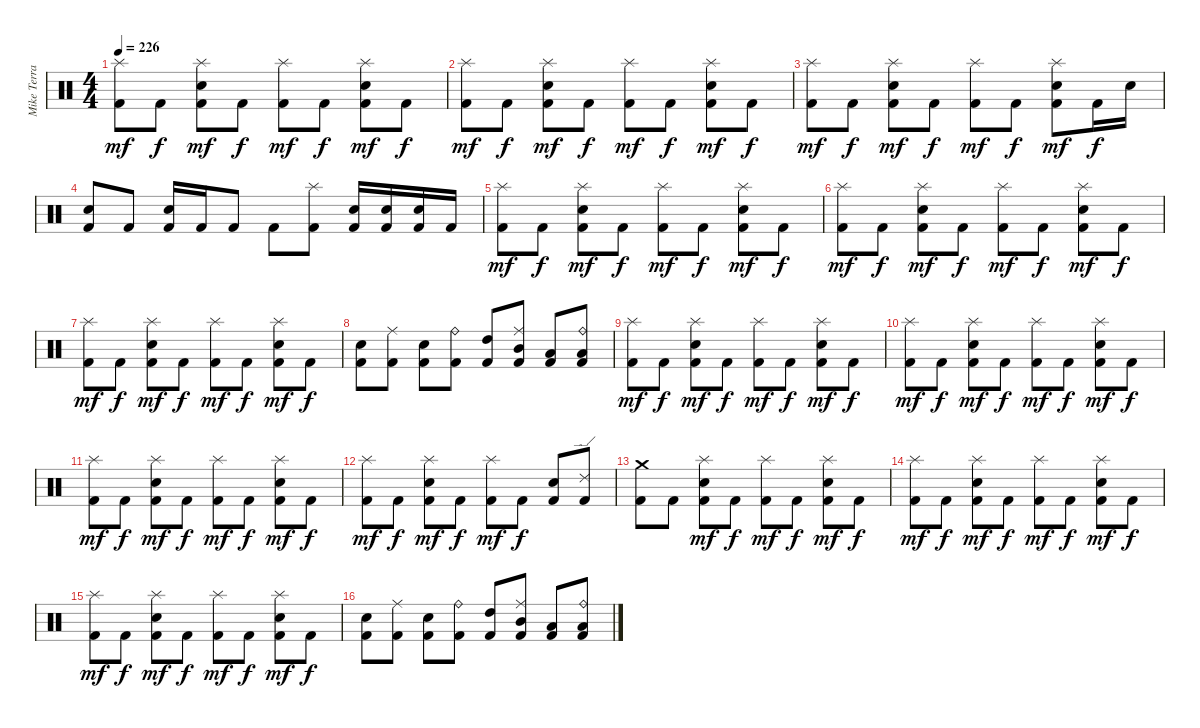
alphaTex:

\track ("Mike Terrana" "Mike Terra") {instrument percussion}
\staff {score}
\articulation defaults
\ts (4 4)
\tempo 226
\clef neutral
\ks c
("Splash (hit)" "Kick (hit) 2").8{dy mf} "Kick (hit) 2".8{dy f} ("Splash (hit)" "Snare (hit) 2" "Kick (hit) 2").8{dy mf} "Kick (hit) 2".8{dy f} ("Splash (hit)" "Kick (hit) 2").8{dy mf} "Kick (hit) 2".8{dy f} ("Splash (hit)" "Snare (hit) 2" "Kick (hit) 2").8{dy mf} "Kick (hit) 2".8{dy f} |
("Splash (hit)" "Kick (hit) 2").8{dy mf} "Kick (hit) 2".8{dy f} ("Splash (hit)" "Snare (hit) 2" "Kick (hit) 2").8{dy mf} "Kick (hit) 2".8{dy f} ("Splash (hit)" "Kick (hit) 2").8{dy mf} "Kick (hit) 2".8{dy f} ("Splash (hit)" "Snare (hit) 2" "Kick (hit) 2").8{dy mf} "Kick (hit) 2".8{dy f} |
("Splash (hit)" "Kick (hit) 2").8{dy mf} "Kick (hit) 2".8{dy f} ("Splash (hit)" "Snare (hit) 2" "Kick (hit) 2").8{dy mf} "Kick (hit) 2".8{dy f} ("Splash (hit)" "Kick (hit) 2").8{dy mf} "Kick (hit) 2".8{dy f} ("Splash (hit)" "Snare (hit) 2" "Kick (hit) 2").8{dy mf} "Kick (hit) 2".16{dy f} "Snare (hit) 2".16 |
("Snare (hit) 2" "Kick (hit) 2").8 "Kick (hit) 2".8 ("Snare (hit) 2" "Kick (hit) 2").16 "Kick (hit) 2".16 "Kick (hit) 2".8 "Kick (hit) 2".8 ("Splash (hit)" "Kick (hit) 2").8 ("Snare (hit) 2" "Kick (hit) 2").16 ("Snare (hit) 2" "Kick (hit) 2").16 ("Snare (hit) 2" "Kick (hit) 2").16 "Kick (hit) 2".16 |
("Splash (hit)" "Kick (hit) 2").8{dy mf} "Kick (hit) 2".8{dy f} ("Splash (hit)" "Snare (hit) 2" "Kick (hit) 2").8{dy mf} "Kick (hit) 2".8{dy f} ("Splash (hit)" "Kick (hit) 2").8{dy mf} "Kick (hit) 2".8{dy f} ("Splash (hit)" "Snare (hit) 2" "Kick (hit) 2").8{dy mf} "Kick (hit) 2".8{dy f} |
("Splash (hit)" "Kick (hit) 2").8{dy mf} "Kick (hit) 2".8{dy f} ("Splash (hit)" "Snare (hit) 2" "Kick (hit) 2").8{dy mf} "Kick (hit) 2".8{dy f} ("Splash (hit)" "Kick (hit) 2").8{dy mf} "Kick (hit) 2".8{dy f} ("Splash (hit)" "Snare (hit) 2" "Kick (hit) 2").8{dy mf} "Kick (hit) 2".8{dy f} |
("Splash (hit)" "Kick (hit) 2").8{dy mf} "Kick (hit) 2".8{dy f} ("Splash (hit)" "Snare (hit) 2" "Kick (hit) 2").8{dy mf} "Kick (hit) 2".8{dy f} ("Splash (hit)" "Kick (hit) 2").8{dy mf} "Kick (hit) 2".8{dy f} ("Splash (hit)" "Snare (hit) 2" "Kick (hit) 2").8{dy mf} "Kick (hit) 2".8{dy f} |
("Snare (hit) 2" "Kick (hit) 2").8 ("Ride (middle)" "Kick (hit) 2").8 ("Snare (hit) 2" "Kick (hit) 2").8 ("Ride (bell)" "Kick (hit) 2").8 ("High Tom (hit)" "Kick (hit) 2").8 ("Ride (middle)" "Mid Tom (hit)" "Kick (hit) 2").8 ("Low Tom (hit)" "Kick (hit) 2").8 ("Ride (bell)" "Low Tom (hit)" "Kick (hit) 2").8 |
("Splash (hit)" "Kick (hit) 2").8{dy mf} "Kick (hit) 2".8{dy f} ("Splash (hit)" "Snare (hit) 2" "Kick (hit) 2").8{dy mf} "Kick (hit) 2".8{dy f} ("Splash (hit)" "Kick (hit) 2").8{dy mf} "Kick (hit) 2".8{dy f} ("Splash (hit)" "Snare (hit) 2" "Kick (hit) 2").8{dy mf} "Kick (hit) 2".8{dy f} |
("Splash (hit)" "Kick (hit) 2").8{dy mf} "Kick (hit) 2".8{dy f} ("Splash (hit)" "Snare (hit) 2" "Kick (hit) 2").8{dy mf} "Kick (hit) 2".8{dy f} ("Splash (hit)" "Kick (hit) 2").8{dy mf} "Kick (hit) 2".8{dy f} ("Splash (hit)" "Snare (hit) 2" "Kick (hit) 2").8{dy mf} "Kick (hit) 2".8{dy f} |
("Splash (hit)" "Kick (hit) 2").8{dy mf} "Kick (hit) 2".8{dy f} ("Splash (hit)" "Snare (hit) 2" "Kick (hit) 2").8{dy mf} "Kick (hit) 2".8{dy f} ("Splash (hit)" "Kick (hit) 2").8{dy mf} "Kick (hit) 2".8{dy f} ("Splash (hit)" "Snare (hit) 2" "Kick (hit) 2").8{dy mf} "Kick (hit) 2".8{dy f} |
("Splash (hit)" "Kick (hit) 2").8{dy mf} "Kick (hit) 2".8{dy f} ("Splash (hit)" "Snare (hit) 2" "Kick (hit) 2").8{dy mf} "Kick (hit) 2".8{dy f} ("Splash (hit)" "Kick (hit) 2").8{dy mf} "Kick (hit) 2".8{dy f} ("Snare (hit) 2" "Kick (hit) 2").8 ("Ride (edge) 2" "Kick (hit) 2").8 |
("Crash medium (hit)" "Kick (hit) 2").8 "Kick (hit) 2".8 ("Splash (hit)" "Snare (hit) 2" "Kick (hit) 2").8{dy mf} "Kick (hit) 2".8{dy f} ("Splash (hit)" "Kick (hit) 2").8{dy mf} "Kick (hit) 2".8{dy f} ("Splash (hit)" "Snare (hit) 2" "Kick (hit) 2").8{dy mf} "Kick (hit) 2".8{dy f} |
("Splash (hit)" "Kick (hit) 2").8{dy mf} "Kick (hit) 2".8{dy f} ("Splash (hit)" "Snare (hit) 2" "Kick (hit) 2").8{dy mf} "Kick (hit) 2".8{dy f} ("Splash (hit)" "Kick (hit) 2").8{dy mf} "Kick (hit) 2".8{dy f} ("Splash (hit)" "Snare (hit) 2" "Kick (hit) 2").8{dy mf} "Kick (hit) 2".8{dy f} |
("Splash (hit)" "Kick (hit) 2").8{dy mf} "Kick (hit) 2".8{dy f} ("Splash (hit)" "Snare (hit) 2" "Kick (hit) 2").8{dy mf} "Kick (hit) 2".8{dy f} ("Splash (hit)" "Kick (hit) 2").8{dy mf} "Kick (hit) 2".8{dy f} ("Splash (hit)" "Snare (hit) 2" "Kick (hit) 2").8{dy mf} "Kick (hit) 2".8{dy f} |
("Snare (hit) 2" "Kick (hit) 2").8 ("Ride (middle)" "Kick (hit) 2").8 ("Snare (hit) 2" "Kick (hit) 2").8 ("Ride (bell)" "Kick (hit) 2").8 ("High Tom (hit)" "Kick (hit) 2").8 ("Ride (middle)" "Mid Tom (hit)" "Kick (hit) 2").8 ("Low Tom (hit)" "Kick (hit) 2").8 ("Ride (bell)" "Low Tom (hit)" "Kick (hit) 2").8
